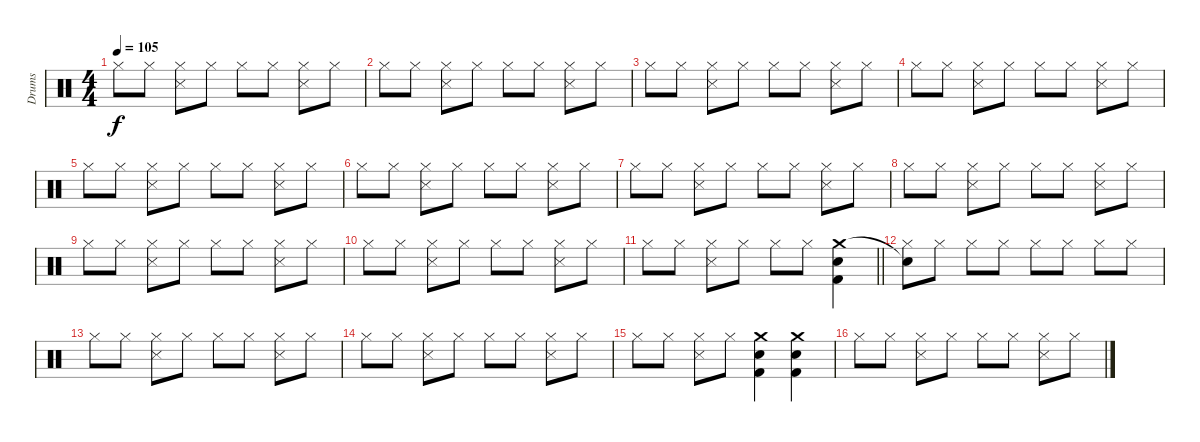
\track ("Drums" "Drums") {instrument percussion}
\staff {score}
\articulation defaults
\ts (4 4)
\tempo 105
\clef neutral
\ks c "Hi-Hat (closed)".8{dy f} "Hi-Hat (closed)".8
("Hi-Hat (closed)" "Snare (side stick) 3").8 "Hi-Hat (closed)".8 "Hi-Hat (closed)".8 "Hi-Hat (closed)".8 ("Hi-Hat (closed)" "Snare (side stick) 3").8 "Hi-Hat (closed)".8 |
"Hi-Hat (closed)".8 "Hi-Hat (closed)".8 ("Hi-Hat (closed)" "Snare (side stick) 3").8 "Hi-Hat (closed)".8 "Hi-Hat (closed)".8 "Hi-Hat (closed)".8 ("Hi-Hat (closed)" "Snare (side stick) 3").8 "Hi-Hat (closed)".8 |
"Hi-Hat (closed)".8 "Hi-Hat (closed)".8 ("Hi-Hat (closed)" "Snare (side stick) 3").8 "Hi-Hat (closed)".8 "Hi-Hat (closed)".8 "Hi-Hat (closed)".8 ("Hi-Hat (closed)" "Snare (side stick) 3").8 "Hi-Hat (closed)".8 |
"Hi-Hat (closed)".8 "Hi-Hat (closed)".8 ("Hi-Hat (closed)" "Snare (side stick) 3").8 "Hi-Hat (closed)".8 "Hi-Hat (closed)".8 "Hi-Hat (closed)".8 ("Hi-Hat (closed)" "Snare (side stick) 3").8 "Hi-Hat (closed)".8 |
"Hi-Hat (closed)".8 "Hi-Hat (closed)".8 ("Hi-Hat (closed)" "Snare (side stick) 3").8 "Hi-Hat (closed)".8 "Hi-Hat (closed)".8 "Hi-Hat (closed)".8 ("Hi-Hat (closed)" "Snare (side stick) 3").8 "Hi-Hat (closed)".8 |
"Hi-Hat (closed)".8 "Hi-Hat (closed)".8 ("Hi-Hat (closed)" "Snare (side stick) 3").8 "Hi-Hat (closed)".8 "Hi-Hat (closed)".8 "Hi-Hat (closed)".8 ("Hi-Hat (closed)" "Snare (side stick) 3").8 "Hi-Hat (closed)".8 |
"Hi-Hat (closed)".8 "Hi-Hat (closed)".8 ("Hi-Hat (closed)" "Snare (side stick) 3").8 "Hi-Hat (closed)".8 "Hi-Hat (closed)".8 "Hi-Hat (closed)".8 ("Hi-Hat (closed)" "Snare (side stick) 3").8 "Hi-Hat (closed)".8 |
"Hi-Hat (closed)".8 "Hi-Hat (closed)".8 ("Hi-Hat (closed)" "Snare (side stick) 3").8 "Hi-Hat (closed)".8 "Hi-Hat (closed)".8 "Hi-Hat (closed)".8 ("Hi-Hat (closed)" "Snare (side stick) 3").8 "Hi-Hat (closed)".8 |
"Hi-Hat (closed)".8 "Hi-Hat (closed)".8 ("Hi-Hat (closed)" "Snare (side stick) 3").8 "Hi-Hat (closed)".8 "Hi-Hat (closed)".8 "Hi-Hat (closed)".8 ("Hi-Hat (closed)" "Snare (side stick) 3").8 "Hi-Hat (closed)".8 |
"Hi-Hat (closed)".8 "Hi-Hat (closed)".8 ("Hi-Hat (closed)" "Snare (side stick) 3").8 "Hi-Hat (closed)".8 "Hi-Hat (closed)".8 "Hi-Hat (closed)".8 ("Hi-Hat (closed)" "Snare (side stick) 3").8 "Hi-Hat (closed)".8 |
\barLineRight lightlight "Hi-Hat (closed)".8 "Hi-Hat (closed)".8
("Hi-Hat (closed)" "Snare (side stick) 3").8 "Hi-Hat (closed)".8 "Hi-Hat (closed)".8 "Hi-Hat (closed)".8 ("Crash medium (hit)" "Electric Snare (hit)" "Kick (hit) 2").4 |
("Snare (hit)"{t} "Hi-Hat (closed)").8 "Hi-Hat (closed)".8 "Hi-Hat (closed)".8 "Hi-Hat (closed)".8 "Hi-Hat (closed)".8 "Hi-Hat (closed)".8 "Hi-Hat (closed)".8 "Hi-Hat (closed)".8 |
"Hi-Hat (closed)".8 "Hi-Hat (closed)".8 ("Hi-Hat (closed)" "Snare (side stick) 3").8 "Hi-Hat (closed)".8 "Hi-Hat (closed)".8 "Hi-Hat (closed)".8 ("Hi-Hat (closed)" "Snare (side stick) 3").8 "Hi-Hat (closed)".8 |
"Hi-Hat (closed)".8 "Hi-Hat (closed)".8 ("Hi-Hat (closed)" "Snare (side stick) 3").8 "Hi-Hat (closed)".8 "Hi-Hat (closed)".8 "Hi-Hat (closed)".8 ("Hi-Hat (closed)" "Snare (side stick) 3").8 "Hi-Hat (closed)".8 |
"Hi-Hat (closed)".8 "Hi-Hat (closed)".8 ("Hi-Hat (closed)" "Snare (side stick) 3").8 "Hi-Hat (closed)".8 ("Crash medium (hit)" "Electric Snare (hit)" "Kick (hit) 2").4 ("Crash medium (hit)" "Electric Snare (hit)" "Kick (hit) 2").4 |
"Hi-Hat (closed)".8 "Hi-Hat (closed)".8 ("Hi-Hat (closed)" "Snare (side stick) 3").8 "Hi-Hat (closed)".8 "Hi-Hat (closed)".8 "Hi-Hat (closed)".8 ("Hi-Hat (closed)" "Snare (side stick) 3").8 "Hi-Hat (closed)".8
